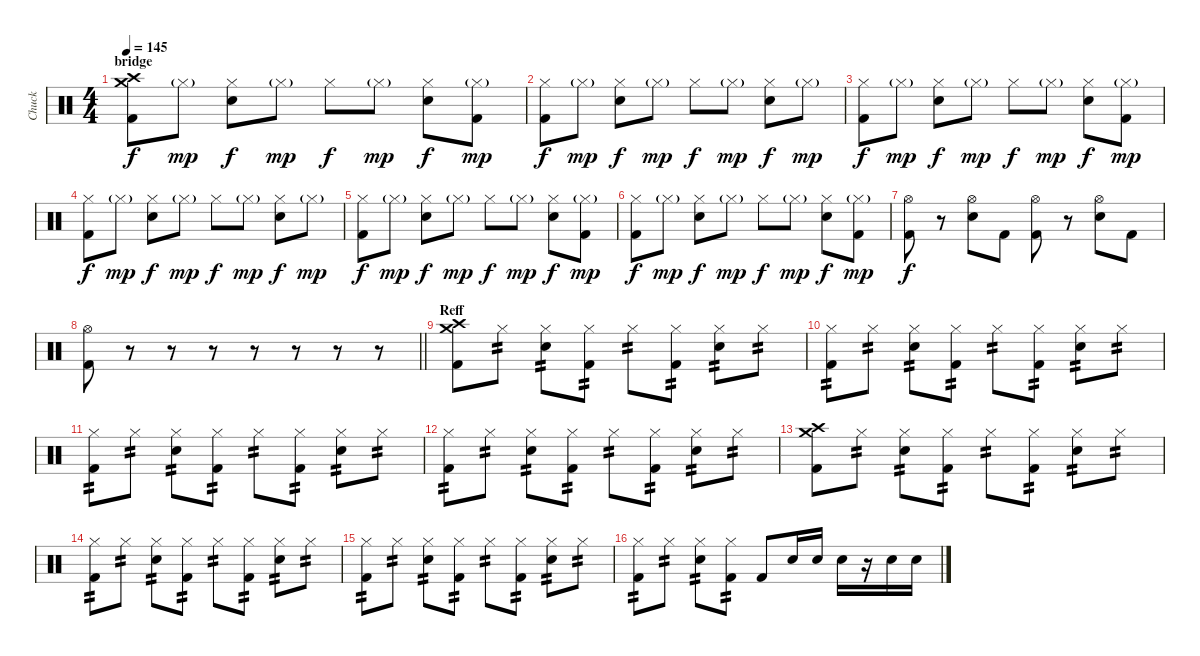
\track ("Chuck" "Chuck") {instrument percussion}
\staff {score}
\articulation defaults
\ts (4 4)
\section ("" "bridge")
\tempo 145
\clef neutral
\ks c
("Crash medium (hit)" "Crash high (hit)" "Kick (hit) 2").8{dy f} "Hi-Hat (closed)"{g}.8{dy mp} ("Hi-Hat (closed)" "Snare (hit) 2").8{dy f} "Hi-Hat (closed)"{g}.8{dy mp} "Hi-Hat (closed)".8{dy f} "Hi-Hat (closed)"{g}.8{dy mp} ("Hi-Hat (closed)" "Snare (hit) 2").8{dy f} ("Hi-Hat (closed)"{g} "Kick (hit) 2").8{dy mp} |
("Hi-Hat (closed)" "Kick (hit) 2").8{dy f} "Hi-Hat (closed)"{g}.8{dy mp} ("Hi-Hat (closed)" "Snare (hit) 2").8{dy f} "Hi-Hat (closed)"{g}.8{dy mp} "Hi-Hat (closed)".8{dy f} "Hi-Hat (closed)"{g}.8{dy mp} ("Hi-Hat (closed)" "Snare (hit) 2").8{dy f} "Hi-Hat (closed)"{g}.8{dy mp} |
("Hi-Hat (closed)" "Kick (hit) 2").8{dy f} "Hi-Hat (closed)"{g}.8{dy mp} ("Hi-Hat (closed)" "Snare (hit) 2").8{dy f} "Hi-Hat (closed)"{g}.8{dy mp} "Hi-Hat (closed)".8{dy f} "Hi-Hat (closed)"{g}.8{dy mp} ("Hi-Hat (closed)" "Snare (hit) 2").8{dy f} ("Hi-Hat (closed)"{g} "Kick (hit) 2").8{dy mp} |
("Hi-Hat (closed)" "Kick (hit) 2").8{dy f} "Hi-Hat (closed)"{g}.8{dy mp} ("Hi-Hat (closed)" "Snare (hit) 2").8{dy f} "Hi-Hat (closed)"{g}.8{dy mp} "Hi-Hat (closed)".8{dy f} "Hi-Hat (closed)"{g}.8{dy mp} ("Hi-Hat (closed)" "Snare (hit) 2").8{dy f} "Hi-Hat (closed)"{g}.8{dy mp} |
("Hi-Hat (closed)" "Kick (hit) 2").8{dy f} "Hi-Hat (closed)"{g}.8{dy mp} ("Hi-Hat (closed)" "Snare (hit) 2").8{dy f} "Hi-Hat (closed)"{g}.8{dy mp} "Hi-Hat (closed)".8{dy f} "Hi-Hat (closed)"{g}.8{dy mp} ("Hi-Hat (closed)" "Snare (hit) 2").8{dy f} ("Hi-Hat (closed)"{g} "Kick (hit) 2").8{dy mp} |
("Hi-Hat (closed)" "Kick (hit) 2").8{dy f} "Hi-Hat (closed)"{g}.8{dy mp} ("Hi-Hat (closed)" "Snare (hit) 2").8{dy f} "Hi-Hat (closed)"{g}.8{dy mp} "Hi-Hat (closed)".8{dy f} "Hi-Hat (closed)"{g}.8{dy mp} ("Hi-Hat (closed)" "Snare (hit) 2").8{dy f} ("Hi-Hat (closed)"{g} "Kick (hit) 2").8{dy mp} |
("Hi-Hat (open)" "Kick (hit) 2").8{dy f} r.8 ("Hi-Hat (open)" "Snare (hit) 2").8 "Kick (hit) 2".8 ("Hi-Hat (open)" "Kick (hit) 2").8 r.8 ("Hi-Hat (open)" "Snare (hit) 2").8 "Kick (hit) 2".8 |
\barLineRight lightlight
("Hi-Hat (open)" "Kick (hit) 2").8 r.8 r.8 r.8 r.8 r.8 r.8 r.8 |
\section ("" "Reff")
("Crash medium (hit)" "Crash high (hit)" "Kick (hit) 2").8 "Hi-Hat (closed)".8{tp 2} ("Hi-Hat (closed)" "Snare (hit) 2").8{tp 2} ("Hi-Hat (closed)" "Kick (hit) 2").8{tp 2} "Hi-Hat (closed)".8{tp 2} ("Hi-Hat (closed)" "Kick (hit) 2").8{tp 2} ("Hi-Hat (closed)" "Snare (hit) 2").8{tp 2} "Hi-Hat (closed)".8{tp 2} |
("Hi-Hat (closed)" "Kick (hit) 2").8{tp 2} "Hi-Hat (closed)".8{tp 2} ("Hi-Hat (closed)" "Snare (hit) 2").8{tp 2} ("Hi-Hat (closed)" "Kick (hit) 2").8{tp 2} "Hi-Hat (closed)".8{tp 2} ("Hi-Hat (closed)" "Kick (hit) 2").8{tp 2} ("Hi-Hat (closed)" "Snare (hit) 2").8{tp 2} "Hi-Hat (closed)".8{tp 2} |
("Hi-Hat (closed)" "Kick (hit) 2").8{tp 2} "Hi-Hat (closed)".8{tp 2} ("Hi-Hat (closed)" "Snare (hit) 2").8{tp 2} ("Hi-Hat (closed)" "Kick (hit) 2").8{tp 2} "Hi-Hat (closed)".8{tp 2} ("Hi-Hat (closed)" "Kick (hit) 2").8{tp 2} ("Hi-Hat (closed)" "Snare (hit) 2").8{tp 2} "Hi-Hat (closed)".8{tp 2} |
("Hi-Hat (closed)" "Kick (hit) 2").8{tp 2} "Hi-Hat (closed)".8{tp 2} ("Hi-Hat (closed)" "Snare (hit) 2").8{tp 2} ("Hi-Hat (closed)" "Kick (hit) 2").8{tp 2} "Hi-Hat (closed)".8{tp 2} ("Hi-Hat (closed)" "Kick (hit) 2").8{tp 2} ("Hi-Hat (closed)" "Snare (hit) 2").8{tp 2} "Hi-Hat (closed)".8{tp 2} |
("Crash medium (hit)" "Crash high (hit)" "Kick (hit) 2").8 "Hi-Hat (closed)".8{tp 2} ("Hi-Hat (closed)" "Snare (hit) 2").8{tp 2} ("Hi-Hat (closed)" "Kick (hit) 2").8{tp 2} "Hi-Hat (closed)".8{tp 2} ("Hi-Hat (closed)" "Kick (hit) 2").8{tp 2} ("Hi-Hat (closed)" "Snare (hit) 2").8{tp 2} "Hi-Hat (closed)".8{tp 2} |
("Hi-Hat (closed)" "Kick (hit) 2").8{tp 2} "Hi-Hat (closed)".8{tp 2} ("Hi-Hat (closed)" "Snare (hit) 2").8{tp 2} ("Hi-Hat (closed)" "Kick (hit) 2").8{tp 2} "Hi-Hat (closed)".8{tp 2} ("Hi-Hat (closed)" "Kick (hit) 2").8{tp 2} ("Hi-Hat (closed)" "Snare (hit) 2").8{tp 2} "Hi-Hat (closed)".8{tp 2} |
("Hi-Hat (closed)" "Kick (hit) 2").8{tp 2} "Hi-Hat (closed)".8{tp 2} ("Hi-Hat (closed)" "Snare (hit) 2").8{tp 2} ("Hi-Hat (closed)" "Kick (hit) 2").8{tp 2} "Hi-Hat (closed)".8{tp 2} ("Hi-Hat (closed)" "Kick (hit) 2").8{tp 2} ("Hi-Hat (closed)" "Snare (hit) 2").8{tp 2} "Hi-Hat (closed)".8{tp 2} |
("Hi-Hat (closed)" "Kick (hit) 2").8{tp 2} "Hi-Hat (closed)".8{tp 2} ("Hi-Hat (closed)" "Snare (hit) 2").8{tp 2} ("Hi-Hat (closed)" "Kick (hit) 2").8{tp 2} "Kick (hit) 2".8 "Snare (hit) 2".16 "Snare (hit) 2".16 "Snare (hit) 2".16 r.16 "Snare (hit) 2".16 "Snare (hit) 2".16
